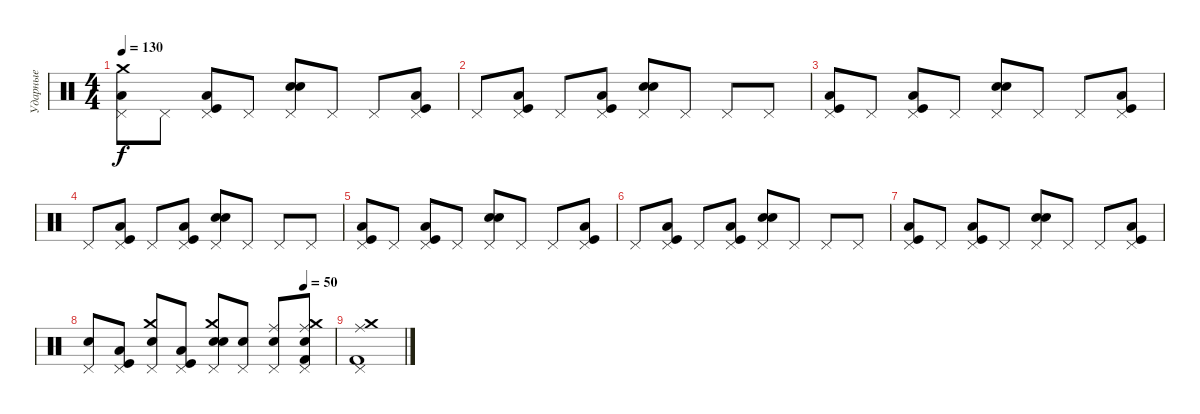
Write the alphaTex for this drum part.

\track ("Ударные" "Ударные") {instrument percussion}
\staff {score}
\articulation defaults
\ts (4 4)
\tempo 130
\clef neutral
\ks c
("Pedal Hi-Hat (hit)" "Low Tom (hit)" "Crash medium (hit)").8{dy f} "Pedal Hi-Hat (hit)".8 ("Pedal Hi-Hat (hit)" "Low Tom (hit)" "Kick (hit)").8 "Pedal Hi-Hat (hit)".8 ("Pedal Hi-Hat (hit)" "Electric Snare (hit)" "Snare (hit) 2").8 "Pedal Hi-Hat (hit)".8 "Pedal Hi-Hat (hit)".8 ("Pedal Hi-Hat (hit)" "Low Tom (hit)" "Kick (hit)").8 |
"Pedal Hi-Hat (hit)".8 ("Pedal Hi-Hat (hit)" "Low Tom (hit)" "Kick (hit)").8 "Pedal Hi-Hat (hit)".8 ("Pedal Hi-Hat (hit)" "Low Tom (hit)" "Kick (hit)").8 ("Pedal Hi-Hat (hit)" "Electric Snare (hit)" "Snare (hit) 2").8 "Pedal Hi-Hat (hit)".8 "Pedal Hi-Hat (hit)".8 "Pedal Hi-Hat (hit)".8 |
("Pedal Hi-Hat (hit)" "Low Tom (hit)" "Kick (hit)").8 "Pedal Hi-Hat (hit)".8 ("Pedal Hi-Hat (hit)" "Low Tom (hit)" "Kick (hit)").8 "Pedal Hi-Hat (hit)".8 ("Pedal Hi-Hat (hit)" "Electric Snare (hit)" "Snare (hit) 2").8 "Pedal Hi-Hat (hit)".8 "Pedal Hi-Hat (hit)".8 ("Pedal Hi-Hat (hit)" "Low Tom (hit)" "Kick (hit)").8 |
"Pedal Hi-Hat (hit)".8 ("Pedal Hi-Hat (hit)" "Low Tom (hit)" "Kick (hit)").8 "Pedal Hi-Hat (hit)".8 ("Pedal Hi-Hat (hit)" "Low Tom (hit)" "Kick (hit)").8 ("Pedal Hi-Hat (hit)" "Electric Snare (hit)" "Snare (hit) 2").8 "Pedal Hi-Hat (hit)".8 "Pedal Hi-Hat (hit)".8 "Pedal Hi-Hat (hit)".8 |
("Pedal Hi-Hat (hit)" "Low Tom (hit)" "Kick (hit)").8 "Pedal Hi-Hat (hit)".8 ("Pedal Hi-Hat (hit)" "Low Tom (hit)" "Kick (hit)").8 "Pedal Hi-Hat (hit)".8 ("Pedal Hi-Hat (hit)" "Electric Snare (hit)" "Snare (hit) 2").8 "Pedal Hi-Hat (hit)".8 "Pedal Hi-Hat (hit)".8 ("Pedal Hi-Hat (hit)" "Low Tom (hit)" "Kick (hit)").8 |
"Pedal Hi-Hat (hit)".8 ("Pedal Hi-Hat (hit)" "Low Tom (hit)" "Kick (hit)").8 "Pedal Hi-Hat (hit)".8 ("Pedal Hi-Hat (hit)" "Low Tom (hit)" "Kick (hit)").8 ("Pedal Hi-Hat (hit)" "Electric Snare (hit)" "Snare (hit) 2").8 "Pedal Hi-Hat (hit)".8 "Pedal Hi-Hat (hit)".8 "Pedal Hi-Hat (hit)".8 |
("Pedal Hi-Hat (hit)" "Low Tom (hit)" "Kick (hit)").8 "Pedal Hi-Hat (hit)".8 ("Pedal Hi-Hat (hit)" "Low Tom (hit)" "Kick (hit)").8 "Pedal Hi-Hat (hit)".8 ("Pedal Hi-Hat (hit)" "Electric Snare (hit)" "Snare (hit) 2").8 "Pedal Hi-Hat (hit)".8 "Pedal Hi-Hat (hit)".8 ("Pedal Hi-Hat (hit)" "Low Tom (hit)" "Kick (hit)").8 |
\tempo (50 0.875)
("Pedal Hi-Hat (hit)" "Snare (hit) 2").8 ("Pedal Hi-Hat (hit)" "Low Tom (hit)" "Kick (hit)").8 ("Pedal Hi-Hat (hit)" "Snare (hit) 2" "Crash medium (hit)").8 ("Pedal Hi-Hat (hit)" "Low Tom (hit)" "Kick (hit)").8 ("Pedal Hi-Hat (hit)" "Electric Snare (hit)" "Snare (hit) 2" "Crash medium (hit)").8 ("Pedal Hi-Hat (hit)" "Snare (hit) 2").8 ("Pedal Hi-Hat (hit)" "Snare (hit) 2" "Ride (middle)").8 ("Pedal Hi-Hat (hit)" "Kick (hit) 2" "Snare (hit) 2" "Ride (middle)" "Crash medium (hit)").8 |
("Pedal Hi-Hat (hit)" "Kick (hit) 2" "Ride (middle)" "Crash medium (hit)").1
